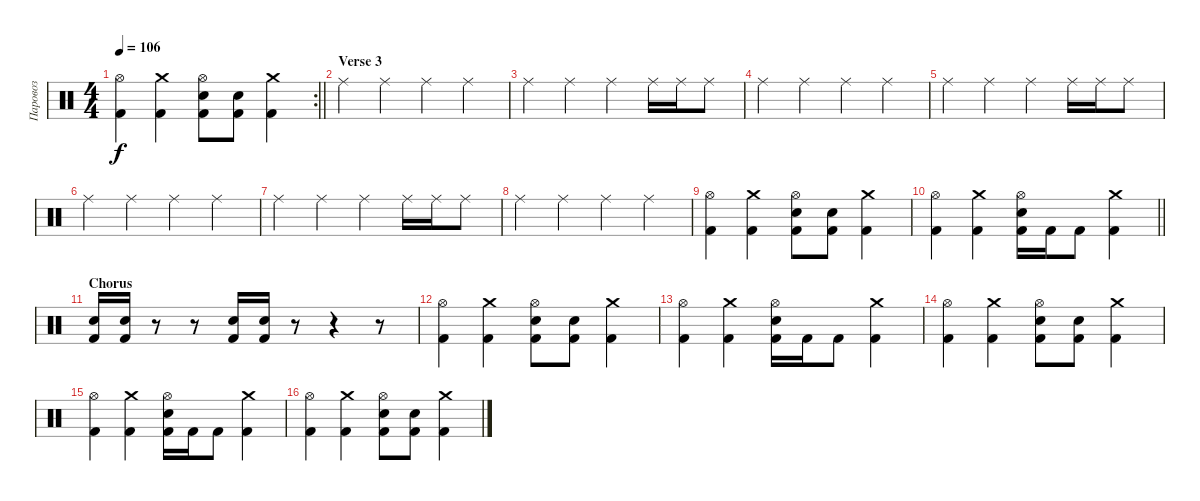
\track ("Паровоз" "Паровоз") {instrument percussion}
\staff {score}
\articulation defaults
\rc 2
\ts (4 4)
\tempo 106
\clef neutral
\barLineRight lightlight
\ks c
("Hi-Hat (open)" "Kick (hit) 2").4{dy f} ("Crash medium (hit)" "Kick (hit) 2").4 ("Hi-Hat (open)" "Electric Snare (hit)" "Kick (hit) 2").8 ("Electric Snare (hit)" "Kick (hit) 2").8 ("Crash medium (hit)" "Kick (hit) 2").4 |
\section ("" "Verse 3")
"Ride (middle)".4 "Ride (middle)".4 "Ride (middle)".4 "Ride (middle)".4 |
"Ride (middle)".4 "Ride (middle)".4 "Ride (middle)".4 "Ride (middle)".16 "Ride (middle)".16 "Ride (middle)".8 |
"Ride (middle)".4 "Ride (middle)".4 "Ride (middle)".4 "Ride (middle)".4 |
"Ride (middle)".4 "Ride (middle)".4 "Ride (middle)".4 "Ride (middle)".16 "Ride (middle)".16 "Ride (middle)".8 |
"Ride (middle)".4 "Ride (middle)".4 "Ride (middle)".4 "Ride (middle)".4 |
"Ride (middle)".4 "Ride (middle)".4 "Ride (middle)".4 "Ride (middle)".16 "Ride (middle)".16 "Ride (middle)".8 |
"Ride (middle)".4 "Ride (middle)".4 "Ride (middle)".4 "Ride (middle)".4 |
("Hi-Hat (open)" "Kick (hit) 2").4 ("Crash medium (hit)" "Kick (hit) 2").4 ("Hi-Hat (open)" "Electric Snare (hit)" "Kick (hit) 2").8 ("Electric Snare (hit)" "Kick (hit) 2").8 ("Crash medium (hit)" "Kick (hit) 2").4 |
\barLineRight lightlight
("Hi-Hat (open)" "Kick (hit) 2").4 ("Crash medium (hit)" "Kick (hit) 2").4 ("Hi-Hat (open)" "Electric Snare (hit)" "Kick (hit) 2").16 "Kick (hit) 2".16 "Kick (hit) 2".8 ("Crash medium (hit)" "Kick (hit) 2").4 |
\section ("" "Chorus")
("Electric Snare (hit)" "Kick (hit) 2").16 ("Electric Snare (hit)" "Kick (hit) 2").16 r.8 r.8 ("Electric Snare (hit)" "Kick (hit) 2").16 ("Electric Snare (hit)" "Kick (hit) 2").16 r.8 r.4 r.8 |
("Hi-Hat (open)" "Kick (hit) 2").4 ("Crash medium (hit)" "Kick (hit) 2").4 ("Hi-Hat (open)" "Electric Snare (hit)" "Kick (hit) 2").8 ("Electric Snare (hit)" "Kick (hit) 2").8 ("Crash medium (hit)" "Kick (hit) 2").4 |
("Hi-Hat (open)" "Kick (hit) 2").4 ("Crash medium (hit)" "Kick (hit) 2").4 ("Hi-Hat (open)" "Electric Snare (hit)" "Kick (hit) 2").16 "Kick (hit) 2".16 "Kick (hit) 2".8 ("Crash medium (hit)" "Kick (hit) 2").4 |
("Hi-Hat (open)" "Kick (hit) 2").4 ("Crash medium (hit)" "Kick (hit) 2").4 ("Hi-Hat (open)" "Electric Snare (hit)" "Kick (hit) 2").8 ("Electric Snare (hit)" "Kick (hit) 2").8 ("Crash medium (hit)" "Kick (hit) 2").4 |
("Hi-Hat (open)" "Kick (hit) 2").4 ("Crash medium (hit)" "Kick (hit) 2").4 ("Hi-Hat (open)" "Electric Snare (hit)" "Kick (hit) 2").16 "Kick (hit) 2".16 "Kick (hit) 2".8 ("Crash medium (hit)" "Kick (hit) 2").4 |
("Hi-Hat (open)" "Kick (hit) 2").4 ("Crash medium (hit)" "Kick (hit) 2").4 ("Hi-Hat (open)" "Electric Snare (hit)" "Kick (hit) 2").8 ("Electric Snare (hit)" "Kick (hit) 2").8 ("Crash medium (hit)" "Kick (hit) 2").4
